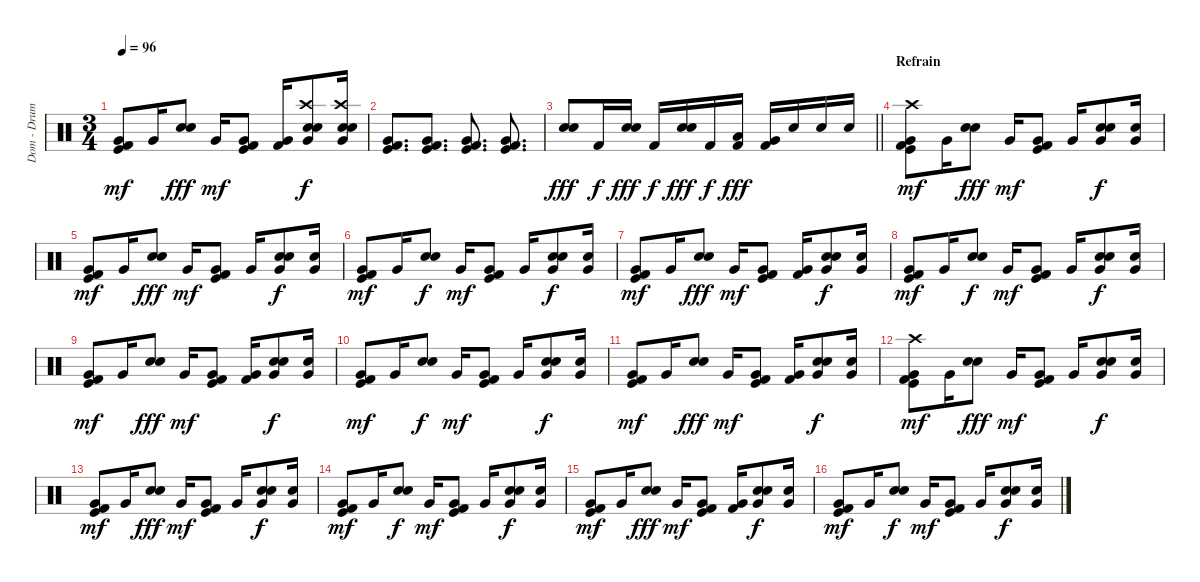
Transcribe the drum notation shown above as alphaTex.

\track ("Dom - Drums" "Dom - Drum") {instrument percussion}
\staff {score}
\articulation defaults
\ts (3 4)
\tempo 96
\clef neutral
\ks c
("Very Low Tom (hit)" "Kick (hit)" "Kick (hit) 2").8{dy mf} "Very Low Tom (hit)".16 ("Electric Snare (hit)" "Snare (hit) 2").8{dy fff} "Very Low Tom (hit)".16{dy mf} ("Very Low Tom (hit)" "Kick (hit)" "Kick (hit) 2").8 ("Very Low Tom (hit)" "Kick (hit) 2").16 ("Crash high (hit)" "Very Low Tom (hit)" "Snare (hit) 2" "Hand Clap (hit)").8{dy f} ("Crash high (hit)" "Very Low Tom (hit)" "Snare (hit) 2" "Hand Clap (hit)").16 |
("Very Low Tom (hit)" "Kick (hit)" "Kick (hit) 2").8{d} ("Very Low Tom (hit)" "Kick (hit)" "Kick (hit) 2").8{d} ("Very Low Tom (hit)" "Kick (hit)" "Kick (hit) 2").8{d} ("Very Low Tom (hit)" "Kick (hit)" "Kick (hit) 2").8{d} |
\barLineRight lightlight
("Snare (hit) 2" "Electric Snare (hit)").8{dy fff} "Kick (hit) 2".16{dy f} ("Snare (hit) 2" "Electric Snare (hit)").16{dy fff} "Kick (hit) 2".16{dy f} ("Snare (hit) 2" "Electric Snare (hit)").16{dy fff} "Kick (hit) 2".16{dy f} ("Low Tom (hit)" "Kick (hit) 2").16{dy fff} ("Very Low Tom (hit)" "Kick (hit) 2").16 "Snare (hit) 2".16 "Snare (hit) 2".16 "Snare (hit) 2".16 |
\section ("" "Refrain")
("Crash high (hit)" "Very Low Tom (hit)" "Kick (hit)" "Kick (hit) 2").8{dy mf} "Very Low Tom (hit)".16 ("Electric Snare (hit)" "Snare (hit) 2").8{dy fff} "Very Low Tom (hit)".16{dy mf} ("Very Low Tom (hit)" "Kick (hit)" "Kick (hit) 2").8 "Very Low Tom (hit)".16 ("Very Low Tom (hit)" "Snare (hit) 2" "Hand Clap (hit)").8{dy f} ("Very Low Tom (hit)" "Hand Clap (hit)").16 |
("Very Low Tom (hit)" "Kick (hit)" "Kick (hit) 2").8{dy mf} "Very Low Tom (hit)".16 ("Electric Snare (hit)" "Snare (hit) 2").8{dy fff} "Very Low Tom (hit)".16{dy mf} ("Very Low Tom (hit)" "Kick (hit)" "Kick (hit) 2").8 "Very Low Tom (hit)".16 ("Very Low Tom (hit)" "Snare (hit) 2" "Hand Clap (hit)").8{dy f} ("Very Low Tom (hit)" "Hand Clap (hit)").16 |
("Very Low Tom (hit)" "Kick (hit)" "Kick (hit) 2").8{dy mf} "Very Low Tom (hit)".16 ("Electric Snare (hit)" "Snare (hit) 2").8{dy f} "Very Low Tom (hit)".16{dy mf} ("Very Low Tom (hit)" "Kick (hit)" "Kick (hit) 2").8 "Very Low Tom (hit)".16 ("Very Low Tom (hit)" "Snare (hit) 2" "Hand Clap (hit)").8{dy f} ("Very Low Tom (hit)" "Hand Clap (hit)").16 |
("Very Low Tom (hit)" "Kick (hit)" "Kick (hit) 2").8{dy mf} "Very Low Tom (hit)".16 ("Electric Snare (hit)" "Snare (hit) 2").8{dy fff} "Very Low Tom (hit)".16{dy mf} ("Very Low Tom (hit)" "Kick (hit)" "Kick (hit) 2").8 ("Very Low Tom (hit)" "Kick (hit) 2").16 ("Very Low Tom (hit)" "Snare (hit) 2" "Hand Clap (hit)").8{dy f} ("Very Low Tom (hit)" "Hand Clap (hit)").16 |
("Very Low Tom (hit)" "Kick (hit)" "Kick (hit) 2").8{dy mf} "Very Low Tom (hit)".16 ("Electric Snare (hit)" "Snare (hit) 2").8{dy f} "Very Low Tom (hit)".16{dy mf} ("Very Low Tom (hit)" "Kick (hit)" "Kick (hit) 2").8 "Very Low Tom (hit)".16 ("Very Low Tom (hit)" "Snare (hit) 2" "Hand Clap (hit)").8{dy f} ("Very Low Tom (hit)" "Hand Clap (hit)").16 |
("Very Low Tom (hit)" "Kick (hit)" "Kick (hit) 2").8{dy mf} "Very Low Tom (hit)".16 ("Electric Snare (hit)" "Snare (hit) 2").8{dy fff} "Very Low Tom (hit)".16{dy mf} ("Very Low Tom (hit)" "Kick (hit)" "Kick (hit) 2").8 ("Very Low Tom (hit)" "Kick (hit) 2").16 ("Very Low Tom (hit)" "Snare (hit) 2" "Hand Clap (hit)").8{dy f} ("Very Low Tom (hit)" "Hand Clap (hit)").16 |
("Very Low Tom (hit)" "Kick (hit)" "Kick (hit) 2").8{dy mf} "Very Low Tom (hit)".16 ("Electric Snare (hit)" "Snare (hit) 2").8{dy f} "Very Low Tom (hit)".16{dy mf} ("Very Low Tom (hit)" "Kick (hit)" "Kick (hit) 2").8 "Very Low Tom (hit)".16 ("Very Low Tom (hit)" "Snare (hit) 2" "Hand Clap (hit)").8{dy f} ("Very Low Tom (hit)" "Hand Clap (hit)").16 |
("Very Low Tom (hit)" "Kick (hit)" "Kick (hit) 2").8{dy mf} "Very Low Tom (hit)".16 ("Electric Snare (hit)" "Snare (hit) 2").8{dy fff} "Very Low Tom (hit)".16{dy mf} ("Very Low Tom (hit)" "Kick (hit)" "Kick (hit) 2").8 ("Very Low Tom (hit)" "Kick (hit) 2").16 ("Very Low Tom (hit)" "Snare (hit) 2" "Hand Clap (hit)").8{dy f} ("Very Low Tom (hit)" "Hand Clap (hit)").16 |
("Crash high (hit)" "Very Low Tom (hit)" "Kick (hit)" "Kick (hit) 2").8{dy mf} "Very Low Tom (hit)".16 ("Electric Snare (hit)" "Snare (hit) 2").8{dy fff} "Very Low Tom (hit)".16{dy mf} ("Very Low Tom (hit)" "Kick (hit)" "Kick (hit) 2").8 "Very Low Tom (hit)".16 ("Very Low Tom (hit)" "Snare (hit) 2" "Hand Clap (hit)").8{dy f} ("Very Low Tom (hit)" "Hand Clap (hit)").16 |
("Very Low Tom (hit)" "Kick (hit)" "Kick (hit) 2").8{dy mf} "Very Low Tom (hit)".16 ("Electric Snare (hit)" "Snare (hit) 2").8{dy fff} "Very Low Tom (hit)".16{dy mf} ("Very Low Tom (hit)" "Kick (hit)" "Kick (hit) 2").8 "Very Low Tom (hit)".16 ("Very Low Tom (hit)" "Snare (hit) 2" "Hand Clap (hit)").8{dy f} ("Very Low Tom (hit)" "Hand Clap (hit)").16 |
("Very Low Tom (hit)" "Kick (hit)" "Kick (hit) 2").8{dy mf} "Very Low Tom (hit)".16 ("Electric Snare (hit)" "Snare (hit) 2").8{dy f} "Very Low Tom (hit)".16{dy mf} ("Very Low Tom (hit)" "Kick (hit)" "Kick (hit) 2").8 "Very Low Tom (hit)".16 ("Very Low Tom (hit)" "Snare (hit) 2" "Hand Clap (hit)").8{dy f} ("Very Low Tom (hit)" "Hand Clap (hit)").16 |
("Very Low Tom (hit)" "Kick (hit)" "Kick (hit) 2").8{dy mf} "Very Low Tom (hit)".16 ("Electric Snare (hit)" "Snare (hit) 2").8{dy fff} "Very Low Tom (hit)".16{dy mf} ("Very Low Tom (hit)" "Kick (hit)" "Kick (hit) 2").8 ("Very Low Tom (hit)" "Kick (hit) 2").16 ("Very Low Tom (hit)" "Snare (hit) 2" "Hand Clap (hit)").8{dy f} ("Very Low Tom (hit)" "Hand Clap (hit)").16 |
("Very Low Tom (hit)" "Kick (hit)" "Kick (hit) 2").8{dy mf} "Very Low Tom (hit)".16 ("Electric Snare (hit)" "Snare (hit) 2").8{dy f} "Very Low Tom (hit)".16{dy mf} ("Very Low Tom (hit)" "Kick (hit)" "Kick (hit) 2").8 "Very Low Tom (hit)".16 ("Very Low Tom (hit)" "Snare (hit) 2" "Hand Clap (hit)").8{dy f} ("Very Low Tom (hit)" "Hand Clap (hit)").16
